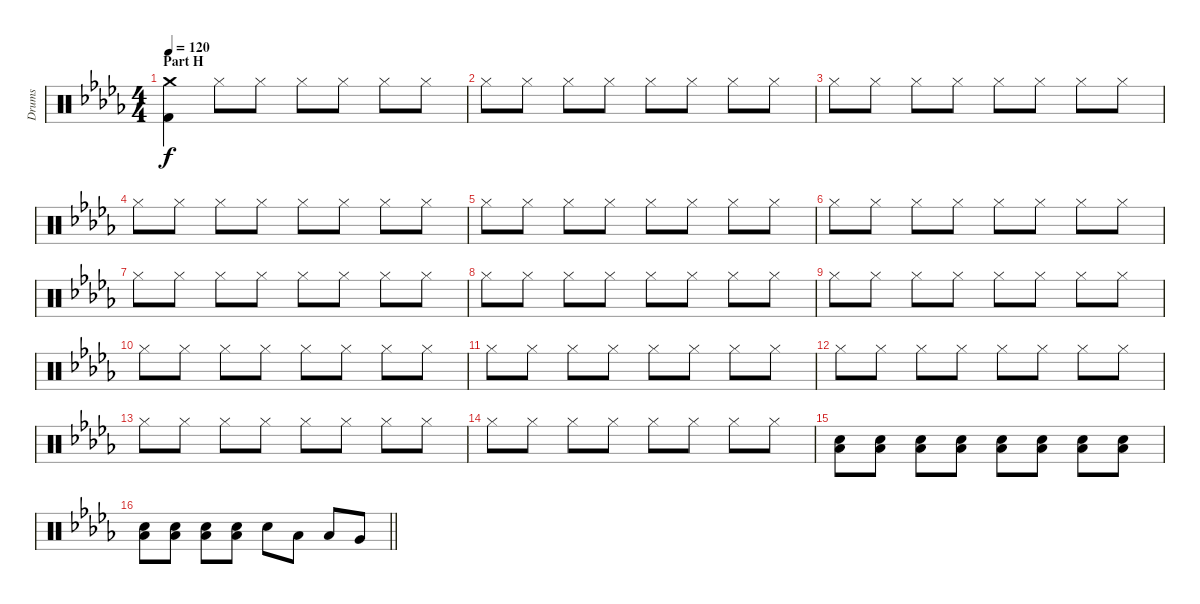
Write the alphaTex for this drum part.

\track ("Drums" "Drums") {instrument percussion}
\staff {score}
\articulation defaults
\ts (4 4)
\section ("" "Part H")
\tempo 120
\clef neutral
\ks db
("Crash medium (hit)" "Kick (hit) 2").4{dy f} "Hi-Hat (closed)".8 "Hi-Hat (closed)".8 "Hi-Hat (closed)".8 "Hi-Hat (closed)".8 "Hi-Hat (closed)".8 "Hi-Hat (closed)".8 |
"Hi-Hat (closed)".8 "Hi-Hat (closed)".8 "Hi-Hat (closed)".8 "Hi-Hat (closed)".8 "Hi-Hat (closed)".8 "Hi-Hat (closed)".8 "Hi-Hat (closed)".8 "Hi-Hat (closed)".8 |
"Hi-Hat (closed)".8 "Hi-Hat (closed)".8 "Hi-Hat (closed)".8 "Hi-Hat (closed)".8 "Hi-Hat (closed)".8 "Hi-Hat (closed)".8 "Hi-Hat (closed)".8 "Hi-Hat (closed)".8 |
"Hi-Hat (closed)".8 "Hi-Hat (closed)".8 "Hi-Hat (closed)".8 "Hi-Hat (closed)".8 "Hi-Hat (closed)".8 "Hi-Hat (closed)".8 "Hi-Hat (closed)".8 "Hi-Hat (closed)".8 |
"Hi-Hat (closed)".8 "Hi-Hat (closed)".8 "Hi-Hat (closed)".8 "Hi-Hat (closed)".8 "Hi-Hat (closed)".8 "Hi-Hat (closed)".8 "Hi-Hat (closed)".8 "Hi-Hat (closed)".8 |
"Hi-Hat (closed)".8 "Hi-Hat (closed)".8 "Hi-Hat (closed)".8 "Hi-Hat (closed)".8 "Hi-Hat (closed)".8 "Hi-Hat (closed)".8 "Hi-Hat (closed)".8 "Hi-Hat (closed)".8 |
"Hi-Hat (closed)".8 "Hi-Hat (closed)".8 "Hi-Hat (closed)".8 "Hi-Hat (closed)".8 "Hi-Hat (closed)".8 "Hi-Hat (closed)".8 "Hi-Hat (closed)".8 "Hi-Hat (closed)".8 |
"Hi-Hat (closed)".8 "Hi-Hat (closed)".8 "Hi-Hat (closed)".8 "Hi-Hat (closed)".8 "Hi-Hat (closed)".8 "Hi-Hat (closed)".8 "Hi-Hat (closed)".8 "Hi-Hat (closed)".8 |
"Hi-Hat (closed)".8 "Hi-Hat (closed)".8 "Hi-Hat (closed)".8 "Hi-Hat (closed)".8 "Hi-Hat (closed)".8 "Hi-Hat (closed)".8 "Hi-Hat (closed)".8 "Hi-Hat (closed)".8 |
"Hi-Hat (closed)".8 "Hi-Hat (closed)".8 "Hi-Hat (closed)".8 "Hi-Hat (closed)".8 "Hi-Hat (closed)".8 "Hi-Hat (closed)".8 "Hi-Hat (closed)".8 "Hi-Hat (closed)".8 |
"Hi-Hat (closed)".8 "Hi-Hat (closed)".8 "Hi-Hat (closed)".8 "Hi-Hat (closed)".8 "Hi-Hat (closed)".8 "Hi-Hat (closed)".8 "Hi-Hat (closed)".8 "Hi-Hat (closed)".8 |
"Hi-Hat (closed)".8 "Hi-Hat (closed)".8 "Hi-Hat (closed)".8 "Hi-Hat (closed)".8 "Hi-Hat (closed)".8 "Hi-Hat (closed)".8 "Hi-Hat (closed)".8 "Hi-Hat (closed)".8 |
"Hi-Hat (closed)".8 "Hi-Hat (closed)".8 "Hi-Hat (closed)".8 "Hi-Hat (closed)".8 "Hi-Hat (closed)".8 "Hi-Hat (closed)".8 "Hi-Hat (closed)".8 "Hi-Hat (closed)".8 |
"Hi-Hat (closed)".8 "Hi-Hat (closed)".8 "Hi-Hat (closed)".8 "Hi-Hat (closed)".8 "Hi-Hat (closed)".8 "Hi-Hat (closed)".8 "Hi-Hat (closed)".8 "Hi-Hat (closed)".8 |
("Electric Snare (hit)" "Low Floor Tom (hit)").8 ("Electric Snare (hit)" "Low Floor Tom (hit)").8 ("Electric Snare (hit)" "Low Floor Tom (hit)").8 ("Electric Snare (hit)" "Low Floor Tom (hit)").8 ("Electric Snare (hit)" "Low Floor Tom (hit)").8 ("Electric Snare (hit)" "Low Floor Tom (hit)").8 ("Electric Snare (hit)" "Low Floor Tom (hit)").8 ("Electric Snare (hit)" "Low Floor Tom (hit)").8 |
\barLineRight lightlight
("Electric Snare (hit)" "Low Floor Tom (hit)").8 ("Electric Snare (hit)" "Low Floor Tom (hit)").8 ("Electric Snare (hit)" "Low Floor Tom (hit)").8 ("Electric Snare (hit)" "Low Floor Tom (hit)").8 "Electric Snare (hit)".8 "Low Tom (hit)".8 "Low Tom (hit)".8 "Very Low Tom (hit)".8
